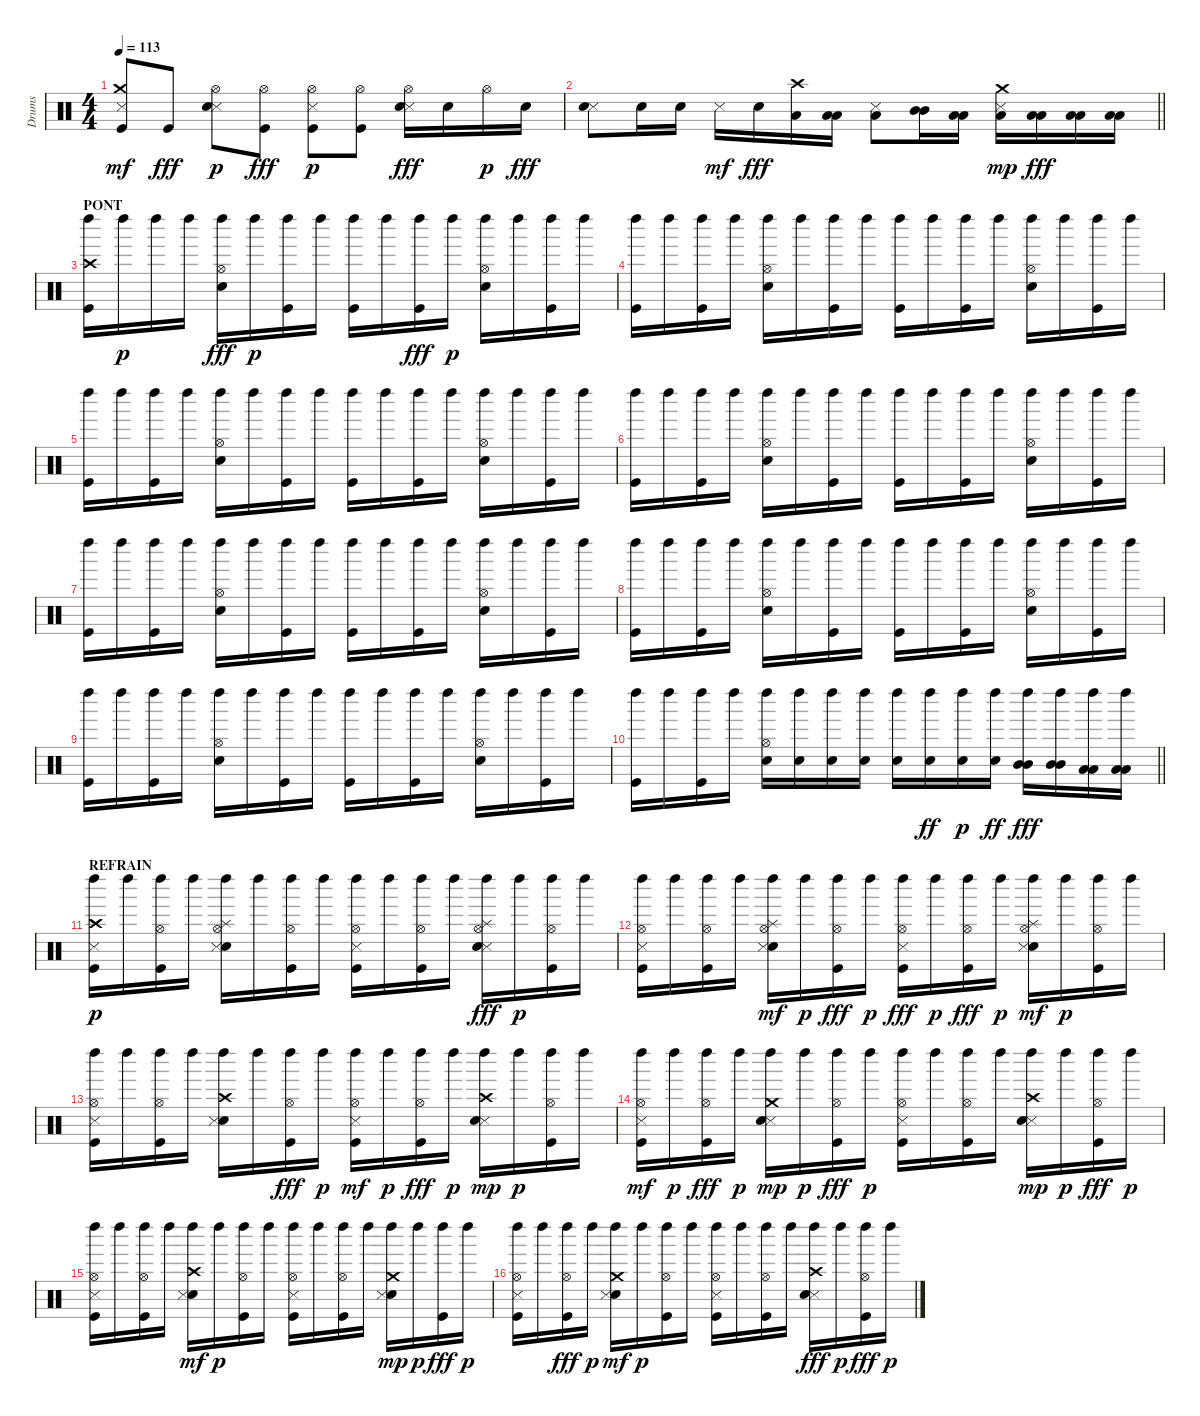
\track ("Drums" "Drums") {instrument percussion}
\staff {score}
\articulation defaults
\ts (4 4)
\tempo 113
\clef neutral
\ks c
("Kick (hit)" "Crash medium (hit)" "Snare (side stick) 3").8{dy mf} "Kick (hit)".8{dy fff} ("Snare (side stick) 3" "Electric Snare (hit)" "Hi-Hat (open)").8{dy p} ("Hi-Hat (open)" "Kick (hit)").8{dy fff} ("Snare (side stick) 3" "Kick (hit)" "Hi-Hat (open)").8{dy p} ("Kick (hit)" "Hi-Hat (open)").8 ("Snare (side stick) 3" "Hi-Hat (open)" "Electric Snare (hit)").16{dy fff} "Electric Snare (hit)".16 "Hi-Hat (open)".16{dy p} "Electric Snare (hit)".16{dy fff} |
\barLineRight lightlight
("Snare (side stick) 3" "Electric Snare (hit)").8 "Electric Snare (hit)".16 "Electric Snare (hit)".16 "Snare (side stick) 3".16{dy mf} "Electric Snare (hit)".16{dy fff} ("Crash high (hit)" "Low Floor Tom (hit)").16 ("Low Floor Tom (hit)" "Low Floor Tom (hit)").16 ("Snare (side stick) 3" "Low Tom (hit)").8 ("Mid Tom (hit)" "Mid Tom (hit)").16 ("Low Tom (hit)" "Low Tom (hit)").16 ("Snare (side stick) 3" "Low Tom (hit)" "Crash medium (hit)").16{dy mp} ("Low Floor Tom (hit)" "Low Floor Tom (hit)").16{dy fff} ("Low Floor Tom (hit)" "Low Floor Tom (hit)").16 ("Low Floor Tom (hit)" "Low Floor Tom (hit)").16 |
\section ("" "PONT")
("Left Maraca (hit)" "Crash high (hit)" "Kick (hit)").16 "Left Maraca (hit)".16{dy p} "Left Maraca (hit)".16 "Left Maraca (hit)".16 ("Left Maraca (hit)" "Hi-Hat (open)" "Electric Snare (hit)").16{dy fff} "Left Maraca (hit)".16{dy p} ("Kick (hit)" "Left Maraca (hit)").16 "Left Maraca (hit)".16 ("Kick (hit)" "Left Maraca (hit)").16 "Left Maraca (hit)".16 ("Left Maraca (hit)" "Kick (hit)").16{dy fff} "Left Maraca (hit)".16{dy p} ("Electric Snare (hit)" "Hi-Hat (open)" "Left Maraca (hit)").16 "Left Maraca (hit)".16 ("Kick (hit)" "Left Maraca (hit)").16 "Left Maraca (hit)".16 |
("Kick (hit)" "Left Maraca (hit)").16 "Left Maraca (hit)".16 ("Kick (hit)" "Left Maraca (hit)").16 "Left Maraca (hit)".16 ("Hi-Hat (open)" "Electric Snare (hit)" "Left Maraca (hit)").16 "Left Maraca (hit)".16 ("Kick (hit)" "Left Maraca (hit)").16 "Left Maraca (hit)".16 ("Kick (hit)" "Left Maraca (hit)").16 "Left Maraca (hit)".16 ("Kick (hit)" "Left Maraca (hit)").16 "Left Maraca (hit)".16 ("Electric Snare (hit)" "Hi-Hat (open)" "Left Maraca (hit)").16 "Left Maraca (hit)".16 ("Kick (hit)" "Left Maraca (hit)").16 "Left Maraca (hit)".16 |
("Kick (hit)" "Left Maraca (hit)").16 "Left Maraca (hit)".16 ("Kick (hit)" "Left Maraca (hit)").16 "Left Maraca (hit)".16 ("Hi-Hat (open)" "Electric Snare (hit)" "Left Maraca (hit)").16 "Left Maraca (hit)".16 ("Kick (hit)" "Left Maraca (hit)").16 "Left Maraca (hit)".16 ("Kick (hit)" "Left Maraca (hit)").16 "Left Maraca (hit)".16 ("Kick (hit)" "Left Maraca (hit)").16 "Left Maraca (hit)".16 ("Electric Snare (hit)" "Hi-Hat (open)" "Left Maraca (hit)").16 "Left Maraca (hit)".16 ("Kick (hit)" "Left Maraca (hit)").16 "Left Maraca (hit)".16 |
("Kick (hit)" "Left Maraca (hit)").16 "Left Maraca (hit)".16 ("Kick (hit)" "Left Maraca (hit)").16 "Left Maraca (hit)".16 ("Hi-Hat (open)" "Electric Snare (hit)" "Left Maraca (hit)").16 "Left Maraca (hit)".16 ("Kick (hit)" "Left Maraca (hit)").16 "Left Maraca (hit)".16 ("Kick (hit)" "Left Maraca (hit)").16 "Left Maraca (hit)".16 ("Kick (hit)" "Left Maraca (hit)").16 "Left Maraca (hit)".16 ("Electric Snare (hit)" "Hi-Hat (open)" "Left Maraca (hit)").16 "Left Maraca (hit)".16 ("Kick (hit)" "Left Maraca (hit)").16 "Left Maraca (hit)".16 |
("Kick (hit)" "Left Maraca (hit)").16 "Left Maraca (hit)".16 ("Kick (hit)" "Left Maraca (hit)").16 "Left Maraca (hit)".16 ("Hi-Hat (open)" "Electric Snare (hit)" "Left Maraca (hit)").16 "Left Maraca (hit)".16 ("Kick (hit)" "Left Maraca (hit)").16 "Left Maraca (hit)".16 ("Kick (hit)" "Left Maraca (hit)").16 "Left Maraca (hit)".16 ("Kick (hit)" "Left Maraca (hit)").16 "Left Maraca (hit)".16 ("Electric Snare (hit)" "Hi-Hat (open)" "Left Maraca (hit)").16 "Left Maraca (hit)".16 ("Kick (hit)" "Left Maraca (hit)").16 "Left Maraca (hit)".16 |
("Kick (hit)" "Left Maraca (hit)").16 "Left Maraca (hit)".16 ("Kick (hit)" "Left Maraca (hit)").16 "Left Maraca (hit)".16 ("Hi-Hat (open)" "Electric Snare (hit)" "Left Maraca (hit)").16 "Left Maraca (hit)".16 ("Kick (hit)" "Left Maraca (hit)").16 "Left Maraca (hit)".16 ("Kick (hit)" "Left Maraca (hit)").16 "Left Maraca (hit)".16 ("Kick (hit)" "Left Maraca (hit)").16 "Left Maraca (hit)".16 ("Electric Snare (hit)" "Hi-Hat (open)" "Left Maraca (hit)").16 "Left Maraca (hit)".16 ("Kick (hit)" "Left Maraca (hit)").16 "Left Maraca (hit)".16 |
("Kick (hit)" "Left Maraca (hit)").16 "Left Maraca (hit)".16 ("Kick (hit)" "Left Maraca (hit)").16 "Left Maraca (hit)".16 ("Hi-Hat (open)" "Electric Snare (hit)" "Left Maraca (hit)").16 "Left Maraca (hit)".16 ("Kick (hit)" "Left Maraca (hit)").16 "Left Maraca (hit)".16 ("Kick (hit)" "Left Maraca (hit)").16 "Left Maraca (hit)".16 ("Kick (hit)" "Left Maraca (hit)").16 "Left Maraca (hit)".16 ("Electric Snare (hit)" "Hi-Hat (open)" "Left Maraca (hit)").16 "Left Maraca (hit)".16 ("Kick (hit)" "Left Maraca (hit)").16 "Left Maraca (hit)".16 |
\barLineRight lightlight
("Kick (hit)" "Left Maraca (hit)").16 "Left Maraca (hit)".16 ("Kick (hit)" "Left Maraca (hit)").16 "Left Maraca (hit)".16 ("Electric Snare (hit)" "Hi-Hat (open)" "Left Maraca (hit)").16 ("Left Maraca (hit)" "Electric Snare (hit)").16 ("Electric Snare (hit)" "Left Maraca (hit)").16 ("Electric Snare (hit)" "Left Maraca (hit)").16 ("Electric Snare (hit)" "Left Maraca (hit)").16 ("Left Maraca (hit)" "Electric Snare (hit)").16{dy ff} ("Electric Snare (hit)" "Left Maraca (hit)").16{dy p} ("Left Maraca (hit)" "Electric Snare (hit)").16{dy ff} ("Left Maraca (hit)" "Mid Tom (hit)" "Mid Tom (hit)").16{dy fff} ("Left Maraca (hit)" "Mid Tom (hit)" "Mid Tom (hit)").16 ("Low Tom (hit)" "Left Maraca (hit)" "Low Tom (hit)").16 ("Left Maraca (hit)" "Low Tom (hit)" "Low Tom (hit)").16 |
\section ("" "REFRAIN")
("Crash high (hit)" "Kick (hit)" "Snare (side stick) 3" "Left Maraca (hit)").16{dy p} "Left Maraca (hit)".16 ("Hi-Hat (open)" "Kick (hit)" "Left Maraca (hit)").16 "Left Maraca (hit)".16 ("Electric Snare (hit)" "Hi-Hat (open)" "Snare (side stick) 3" "Splash (hit)" "Left Maraca (hit)").16 "Left Maraca (hit)".16 ("Kick (hit)" "Hi-Hat (open)" "Left Maraca (hit)").16 "Left Maraca (hit)".16 ("Snare (side stick) 3" "Hi-Hat (open)" "Kick (hit)" "Left Maraca (hit)").16 "Left Maraca (hit)".16 ("Hi-Hat (open)" "Kick (hit)" "Left Maraca (hit)").16 "Left Maraca (hit)".16 ("Left Maraca (hit)" "Snare (side stick) 3" "Hi-Hat (open)" "Splash (hit)" "Electric Snare (hit)").16{dy fff} "Left Maraca (hit)".16{dy p} ("Left Maraca (hit)" "Kick (hit)" "Hi-Hat (open)").16 "Left Maraca (hit)".16 |
("Left Maraca (hit)" "Snare (side stick) 3" "Kick (hit)" "Hi-Hat (open)").16 "Left Maraca (hit)".16 ("Hi-Hat (open)" "Kick (hit)" "Left Maraca (hit)").16 "Left Maraca (hit)".16 ("Electric Snare (hit)" "Left Maraca (hit)" "Splash (hit)" "Hi-Hat (open)" "Snare (side stick) 3").16{dy mf} "Left Maraca (hit)".16{dy p} ("Hi-Hat (open)" "Left Maraca (hit)" "Kick (hit)").16{dy fff} "Left Maraca (hit)".16{dy p} ("Snare (side stick) 3" "Hi-Hat (open)" "Left Maraca (hit)" "Kick (hit)").16{dy fff} "Left Maraca (hit)".16{dy p} ("Hi-Hat (open)" "Left Maraca (hit)" "Kick (hit)").16{dy fff} "Left Maraca (hit)".16{dy p} ("Left Maraca (hit)" "Hi-Hat (open)" "Splash (hit)" "Electric Snare (hit)" "Snare (side stick) 3").16{dy mf} "Left Maraca (hit)".16{dy p} ("Left Maraca (hit)" "Kick (hit)" "Hi-Hat (open)").16 "Left Maraca (hit)".16 |
("Snare (side stick) 3" "Left Maraca (hit)" "Kick (hit)" "Hi-Hat (open)").16 "Left Maraca (hit)".16 ("Hi-Hat (open)" "Kick (hit)" "Left Maraca (hit)").16 "Left Maraca (hit)".16 ("Crash high (hit)" "Electric Snare (hit)" "Snare (side stick) 3" "Left Maraca (hit)").16 "Left Maraca (hit)".16 ("Left Maraca (hit)" "Hi-Hat (open)" "Kick (hit)").16{dy fff} "Left Maraca (hit)".16{dy p} ("Left Maraca (hit)" "Kick (hit)" "Hi-Hat (open)" "Snare (side stick) 3").16{dy mf} "Left Maraca (hit)".16{dy p} ("Left Maraca (hit)" "Hi-Hat (open)" "Kick (hit)").16{dy fff} "Left Maraca (hit)".16{dy p} ("Snare (side stick) 3" "Left Maraca (hit)" "Electric Snare (hit)" "Crash high (hit)").16{dy mp} "Left Maraca (hit)".16{dy p} ("Left Maraca (hit)" "Kick (hit)" "Hi-Hat (open)").16 "Left Maraca (hit)".16 |
("Left Maraca (hit)" "Kick (hit)" "Hi-Hat (open)" "Snare (side stick) 3").16{dy mf} "Left Maraca (hit)".16{dy p} ("Left Maraca (hit)" "Hi-Hat (open)" "Kick (hit)").16{dy fff} "Left Maraca (hit)".16{dy p} ("Snare (side stick) 3" "Electric Snare (hit)" "Left Maraca (hit)" "Crash medium (hit)").16{dy mp} "Left Maraca (hit)".16{dy p} ("Left Maraca (hit)" "Hi-Hat (open)" "Kick (hit)").16{dy fff} "Left Maraca (hit)".16{dy p} ("Left Maraca (hit)" "Snare (side stick) 3" "Kick (hit)" "Hi-Hat (open)").16 "Left Maraca (hit)".16 ("Left Maraca (hit)" "Kick (hit)" "Hi-Hat (open)").16 "Left Maraca (hit)".16 ("Snare (side stick) 3" "Left Maraca (hit)" "Electric Snare (hit)" "Crash high (hit)").16{dy mp} "Left Maraca (hit)".16{dy p} ("Left Maraca (hit)" "Hi-Hat (open)" "Kick (hit)").16{dy fff} "Left Maraca (hit)".16{dy p} |
("Snare (side stick) 3" "Kick (hit)" "Hi-Hat (open)" "Left Maraca (hit)").16 "Left Maraca (hit)".16 ("Kick (hit)" "Left Maraca (hit)" "Hi-Hat (open)").16 "Left Maraca (hit)".16 ("Crash high (hit)" "Left Maraca (hit)" "Electric Snare (hit)" "Snare (side stick) 3").16{dy mf} "Left Maraca (hit)".16{dy p} ("Hi-Hat (open)" "Kick (hit)" "Left Maraca (hit)").16 "Left Maraca (hit)".16 ("Snare (side stick) 3" "Kick (hit)" "Hi-Hat (open)" "Left Maraca (hit)").16 "Left Maraca (hit)".16 ("Kick (hit)" "Hi-Hat (open)" "Left Maraca (hit)").16 "Left Maraca (hit)".16 ("Electric Snare (hit)" "Snare (side stick) 3" "Left Maraca (hit)" "Crash medium (hit)").16{dy mp} "Left Maraca (hit)".16{dy p} ("Left Maraca (hit)" "Kick (hit)").16{dy fff} "Left Maraca (hit)".16{dy p} |
("Left Maraca (hit)" "Snare (side stick) 3" "Kick (hit)" "Hi-Hat (open)").16 "Left Maraca (hit)".16 ("Left Maraca (hit)" "Hi-Hat (open)" "Kick (hit)").16{dy fff} "Left Maraca (hit)".16{dy p} ("Left Maraca (hit)" "Crash medium (hit)" "Electric Snare (hit)" "Snare (side stick) 3").16{dy mf} "Left Maraca (hit)".16{dy p} ("Left Maraca (hit)" "Kick (hit)" "Hi-Hat (open)").16 "Left Maraca (hit)".16 ("Snare (side stick) 3" "Left Maraca (hit)" "Kick (hit)" "Hi-Hat (open)").16 "Left Maraca (hit)".16 ("Left Maraca (hit)" "Kick (hit)" "Hi-Hat (open)").16 "Left Maraca (hit)".16 ("Snare (side stick) 3" "Left Maraca (hit)" "Crash high (hit)" "Electric Snare (hit)").16{dy fff} "Left Maraca (hit)".16{dy p} ("Left Maraca (hit)" "Hi-Hat (open)" "Kick (hit)").16{dy fff} "Left Maraca (hit)".16{dy p}
